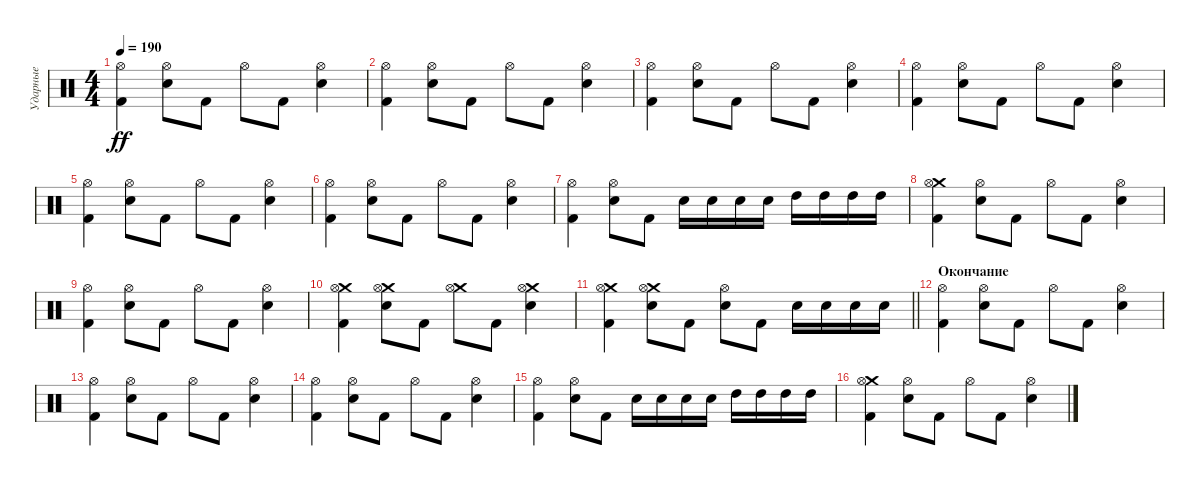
\track ("Ударные" "Ударные") {instrument percussion}
\staff {score}
\articulation defaults
\ts (4 4)
\tempo 190
\clef neutral
\ks c
("Kick (hit) 2" "Hi-Hat (open)").4{dy ff} ("Electric Snare (hit)" "Hi-Hat (open)").8 "Kick (hit) 2".8 "Hi-Hat (open)".8 "Kick (hit) 2".8 ("Electric Snare (hit)" "Hi-Hat (open)").4 |
("Kick (hit) 2" "Hi-Hat (open)").4 ("Electric Snare (hit)" "Hi-Hat (open)").8 "Kick (hit) 2".8 "Hi-Hat (open)".8 "Kick (hit) 2".8 ("Electric Snare (hit)" "Hi-Hat (open)").4 |
("Kick (hit) 2" "Hi-Hat (open)").4 ("Electric Snare (hit)" "Hi-Hat (open)").8 "Kick (hit) 2".8 "Hi-Hat (open)".8 "Kick (hit) 2".8 ("Electric Snare (hit)" "Hi-Hat (open)").4 |
("Kick (hit) 2" "Hi-Hat (open)").4 ("Electric Snare (hit)" "Hi-Hat (open)").8 "Kick (hit) 2".8 "Hi-Hat (open)".8 "Kick (hit) 2".8 ("Electric Snare (hit)" "Hi-Hat (open)").4 |
("Kick (hit) 2" "Hi-Hat (open)").4 ("Electric Snare (hit)" "Hi-Hat (open)").8 "Kick (hit) 2".8 "Hi-Hat (open)".8 "Kick (hit) 2".8 ("Electric Snare (hit)" "Hi-Hat (open)").4 |
("Kick (hit) 2" "Hi-Hat (open)").4 ("Electric Snare (hit)" "Hi-Hat (open)").8 "Kick (hit) 2".8 "Hi-Hat (open)".8 "Kick (hit) 2".8 ("Electric Snare (hit)" "Hi-Hat (open)").4 |
("Kick (hit) 2" "Hi-Hat (open)").4 ("Electric Snare (hit)" "Hi-Hat (open)").8 "Kick (hit) 2".8 "Electric Snare (hit)".16 "Electric Snare (hit)".16 "Electric Snare (hit)".16 "Electric Snare (hit)".16 "High Tom (hit)".16 "High Tom (hit)".16 "High Tom (hit)".16 "High Tom (hit)".16 |
("Crash medium (hit)" "Kick (hit) 2" "Hi-Hat (open)").4 ("Electric Snare (hit)" "Hi-Hat (open)").8 "Kick (hit) 2".8 "Hi-Hat (open)".8 "Kick (hit) 2".8 ("Electric Snare (hit)" "Hi-Hat (open)").4 |
("Kick (hit) 2" "Hi-Hat (open)").4 ("Electric Snare (hit)" "Hi-Hat (open)").8 "Kick (hit) 2".8 "Hi-Hat (open)".8 "Kick (hit) 2".8 ("Electric Snare (hit)" "Hi-Hat (open)").4 |
("Crash medium (hit)" "Kick (hit) 2" "Hi-Hat (open)").4 ("Crash medium (hit)" "Electric Snare (hit)" "Hi-Hat (open)").8 "Kick (hit) 2".8 ("Crash medium (hit)" "Hi-Hat (open)").8 "Kick (hit) 2".8 ("Crash medium (hit)" "Electric Snare (hit)" "Hi-Hat (open)").4 |
\barLineRight lightlight
("Crash medium (hit)" "Kick (hit) 2" "Hi-Hat (open)").4 ("Crash medium (hit)" "Electric Snare (hit)" "Hi-Hat (open)").8 "Kick (hit) 2".8 ("Electric Snare (hit)" "Hi-Hat (open)").8 "Kick (hit) 2".8 "Electric Snare (hit)".16 "Electric Snare (hit)".16 "Electric Snare (hit)".16 "Electric Snare (hit)".16 |
\section ("" "Окончание")
("Kick (hit) 2" "Hi-Hat (open)").4 ("Electric Snare (hit)" "Hi-Hat (open)").8 "Kick (hit) 2".8 "Hi-Hat (open)".8 "Kick (hit) 2".8 ("Electric Snare (hit)" "Hi-Hat (open)").4 |
("Kick (hit) 2" "Hi-Hat (open)").4 ("Electric Snare (hit)" "Hi-Hat (open)").8 "Kick (hit) 2".8 "Hi-Hat (open)".8 "Kick (hit) 2".8 ("Electric Snare (hit)" "Hi-Hat (open)").4 |
("Kick (hit) 2" "Hi-Hat (open)").4 ("Electric Snare (hit)" "Hi-Hat (open)").8 "Kick (hit) 2".8 "Hi-Hat (open)".8 "Kick (hit) 2".8 ("Electric Snare (hit)" "Hi-Hat (open)").4 |
("Kick (hit) 2" "Hi-Hat (open)").4 ("Electric Snare (hit)" "Hi-Hat (open)").8 "Kick (hit) 2".8 "Electric Snare (hit)".16 "Electric Snare (hit)".16 "Electric Snare (hit)".16 "Electric Snare (hit)".16 "High Tom (hit)".16 "High Tom (hit)".16 "High Tom (hit)".16 "High Tom (hit)".16 |
("Crash medium (hit)" "Kick (hit) 2" "Hi-Hat (open)").4 ("Electric Snare (hit)" "Hi-Hat (open)").8 "Kick (hit) 2".8 "Hi-Hat (open)".8 "Kick (hit) 2".8 ("Electric Snare (hit)" "Hi-Hat (open)").4
